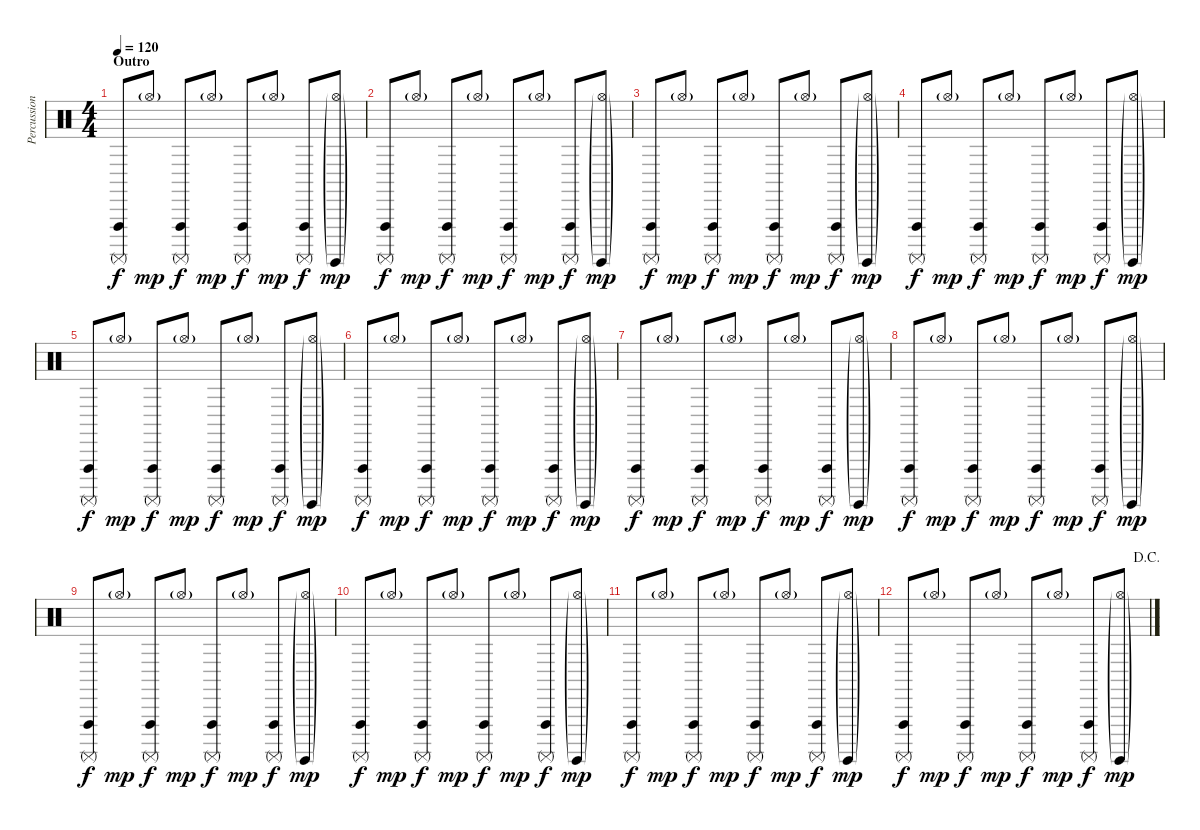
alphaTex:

\track ("Percussion 1" "Percussion") {instrument percussion}
\staff {score}
\articulation defaults
\ts (4 4)
\section ("" "Outro")
\tempo 120
\clef neutral
\ks c
("Surdo (mute)" "Vibraslap (hit)").8{dy f} "Hi-Hat (open)"{g}.8{dy mp} ("Surdo (mute)" "Vibraslap (hit)").8{dy f} "Hi-Hat (open)"{g}.8{dy mp} ("Surdo (mute)" "Vibraslap (hit)").8{dy f} "Hi-Hat (open)"{g}.8{dy mp} ("Surdo (mute)" "Vibraslap (hit)").8{dy f} ("Surdo (hit)"{g} "Hi-Hat (open)"{g}).8{dy mp} |
("Surdo (mute)" "Vibraslap (hit)").8{dy f} "Hi-Hat (open)"{g}.8{dy mp} ("Surdo (mute)" "Vibraslap (hit)").8{dy f} "Hi-Hat (open)"{g}.8{dy mp} ("Surdo (mute)" "Vibraslap (hit)").8{dy f} "Hi-Hat (open)"{g}.8{dy mp} ("Surdo (mute)" "Vibraslap (hit)").8{dy f} ("Surdo (hit)"{g} "Hi-Hat (open)"{g}).8{dy mp} |
("Surdo (mute)" "Vibraslap (hit)").8{dy f} "Hi-Hat (open)"{g}.8{dy mp} ("Surdo (mute)" "Vibraslap (hit)").8{dy f} "Hi-Hat (open)"{g}.8{dy mp} ("Surdo (mute)" "Vibraslap (hit)").8{dy f} "Hi-Hat (open)"{g}.8{dy mp} ("Surdo (mute)" "Vibraslap (hit)").8{dy f} ("Surdo (hit)"{g} "Hi-Hat (open)"{g}).8{dy mp} |
("Surdo (mute)" "Vibraslap (hit)").8{dy f} "Hi-Hat (open)"{g}.8{dy mp} ("Surdo (mute)" "Vibraslap (hit)").8{dy f} "Hi-Hat (open)"{g}.8{dy mp} ("Surdo (mute)" "Vibraslap (hit)").8{dy f} "Hi-Hat (open)"{g}.8{dy mp} ("Surdo (mute)" "Vibraslap (hit)").8{dy f} ("Surdo (hit)"{g} "Hi-Hat (open)"{g}).8{dy mp} |
("Surdo (mute)" "Vibraslap (hit)").8{dy f} "Hi-Hat (open)"{g}.8{dy mp} ("Surdo (mute)" "Vibraslap (hit)").8{dy f} "Hi-Hat (open)"{g}.8{dy mp} ("Surdo (mute)" "Vibraslap (hit)").8{dy f} "Hi-Hat (open)"{g}.8{dy mp} ("Surdo (mute)" "Vibraslap (hit)").8{dy f} ("Surdo (hit)"{g} "Hi-Hat (open)"{g}).8{dy mp} |
("Surdo (mute)" "Vibraslap (hit)").8{dy f} "Hi-Hat (open)"{g}.8{dy mp} ("Surdo (mute)" "Vibraslap (hit)").8{dy f} "Hi-Hat (open)"{g}.8{dy mp} ("Surdo (mute)" "Vibraslap (hit)").8{dy f} "Hi-Hat (open)"{g}.8{dy mp} ("Surdo (mute)" "Vibraslap (hit)").8{dy f} ("Surdo (hit)"{g} "Hi-Hat (open)"{g}).8{dy mp} |
("Surdo (mute)" "Vibraslap (hit)").8{dy f} "Hi-Hat (open)"{g}.8{dy mp} ("Surdo (mute)" "Vibraslap (hit)").8{dy f} "Hi-Hat (open)"{g}.8{dy mp} ("Surdo (mute)" "Vibraslap (hit)").8{dy f} "Hi-Hat (open)"{g}.8{dy mp} ("Surdo (mute)" "Vibraslap (hit)").8{dy f} ("Surdo (hit)"{g} "Hi-Hat (open)"{g}).8{dy mp} |
("Surdo (mute)" "Vibraslap (hit)").8{dy f} "Hi-Hat (open)"{g}.8{dy mp} ("Surdo (mute)" "Vibraslap (hit)").8{dy f} "Hi-Hat (open)"{g}.8{dy mp} ("Surdo (mute)" "Vibraslap (hit)").8{dy f} "Hi-Hat (open)"{g}.8{dy mp} ("Surdo (mute)" "Vibraslap (hit)").8{dy f} ("Surdo (hit)"{g} "Hi-Hat (open)"{g}).8{dy mp} |
("Surdo (mute)" "Vibraslap (hit)").8{dy f} "Hi-Hat (open)"{g}.8{dy mp} ("Surdo (mute)" "Vibraslap (hit)").8{dy f} "Hi-Hat (open)"{g}.8{dy mp} ("Surdo (mute)" "Vibraslap (hit)").8{dy f} "Hi-Hat (open)"{g}.8{dy mp} ("Surdo (mute)" "Vibraslap (hit)").8{dy f} ("Surdo (hit)"{g} "Hi-Hat (open)"{g}).8{dy mp} |
("Surdo (mute)" "Vibraslap (hit)").8{dy f} "Hi-Hat (open)"{g}.8{dy mp} ("Surdo (mute)" "Vibraslap (hit)").8{dy f} "Hi-Hat (open)"{g}.8{dy mp} ("Surdo (mute)" "Vibraslap (hit)").8{dy f} "Hi-Hat (open)"{g}.8{dy mp} ("Surdo (mute)" "Vibraslap (hit)").8{dy f} ("Surdo (hit)"{g} "Hi-Hat (open)"{g}).8{dy mp} |
("Surdo (mute)" "Vibraslap (hit)").8{dy f} "Hi-Hat (open)"{g}.8{dy mp} ("Surdo (mute)" "Vibraslap (hit)").8{dy f} "Hi-Hat (open)"{g}.8{dy mp} ("Surdo (mute)" "Vibraslap (hit)").8{dy f} "Hi-Hat (open)"{g}.8{dy mp} ("Surdo (mute)" "Vibraslap (hit)").8{dy f} ("Surdo (hit)"{g} "Hi-Hat (open)"{g}).8{dy mp} |
\jump dacapo
("Surdo (mute)" "Vibraslap (hit)").8{dy f} "Hi-Hat (open)"{g}.8{dy mp} ("Surdo (mute)" "Vibraslap (hit)").8{dy f} "Hi-Hat (open)"{g}.8{dy mp} ("Surdo (mute)" "Vibraslap (hit)").8{dy f} "Hi-Hat (open)"{g}.8{dy mp} ("Surdo (mute)" "Vibraslap (hit)").8{dy f} ("Surdo (hit)"{g} "Hi-Hat (open)"{g}).8{dy mp}
